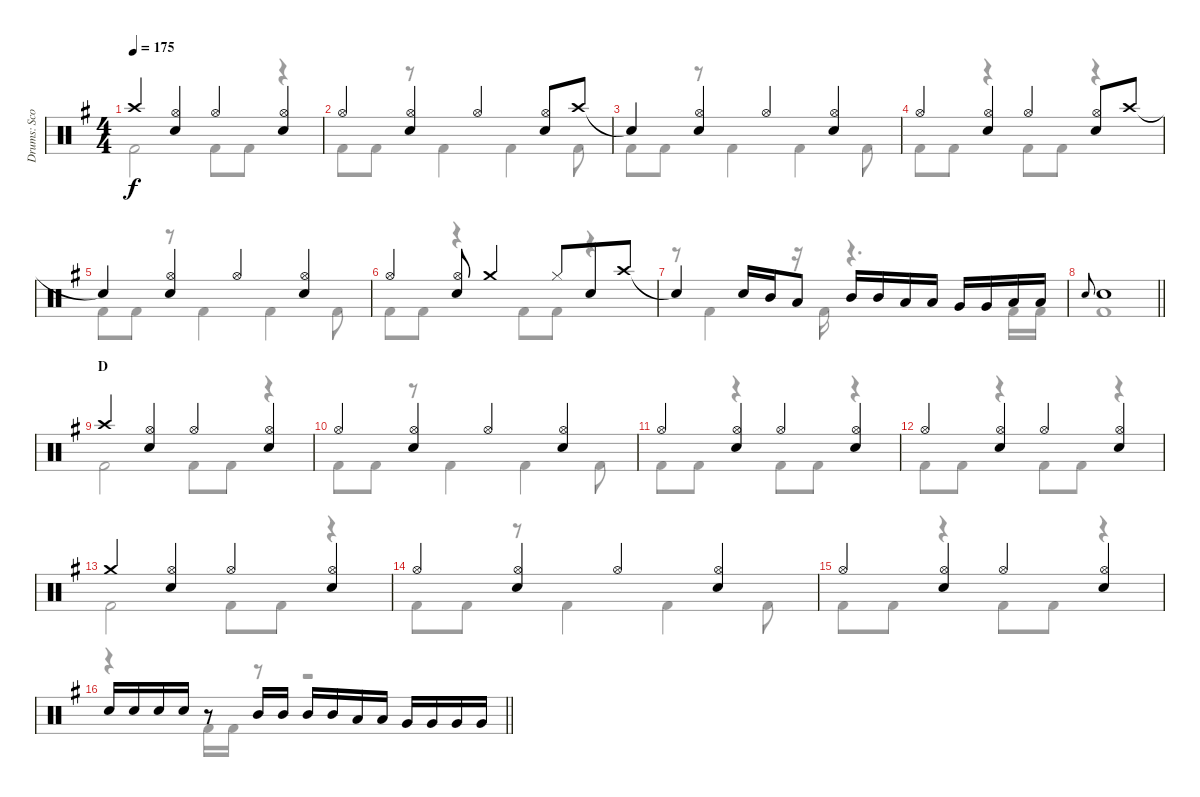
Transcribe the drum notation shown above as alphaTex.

\track ("Drums: Scott" "Drums: Sco") {instrument percussion}
\staff {score}
\articulation defaults
\voice
\ts (4 4)
\tempo 175
\clef neutral
\ks g "Crash high (hit)".4{dy f}
("Hi-Hat (open)" "Snare (hit) 2").4 "Hi-Hat (open)".4 ("Hi-Hat (open)" "Snare (hit) 2").4 |
"Hi-Hat (open)".4 ("Hi-Hat (open)" "Snare (hit) 2").4 "Hi-Hat (open)".4 ("Hi-Hat (open)" "Snare (hit) 2").8 "Crash high (hit)".8 |
"Snare (hit)"{t}.4 ("Hi-Hat (open)" "Snare (hit) 2").4 "Hi-Hat (open)".4 ("Hi-Hat (open)" "Snare (hit) 2").4 |
"Hi-Hat (open)".4 ("Hi-Hat (open)" "Snare (hit) 2").4 "Hi-Hat (open)".4 ("Hi-Hat (open)" "Snare (hit) 2").8 "Crash high (hit)".8 |
"Snare (hit)"{t}.4 ("Hi-Hat (open)" "Snare (hit) 2").4 "Hi-Hat (open)".4 ("Hi-Hat (open)" "Snare (hit) 2").4 |
"Hi-Hat (open)".4 ("Hi-Hat (open)" "Snare (hit) 2").8 "Crash medium (hit)".4 "Hi-Hat (closed)".8{beam merge} "Snare (hit) 2".8 "Crash high (hit)".8 |
"Snare (hit)"{t}.4 "Snare (hit) 2".16 "Mid Tom (hit)".16 "Low Tom (hit)".8 "Mid Tom (hit)".16 "Mid Tom (hit)".16 "Low Tom (hit)".16 "Low Tom (hit)".16 "Very Low Tom (hit)".16 "Very Low Tom (hit)".16 "Low Floor Tom (hit)".16 "Low Floor Tom (hit)".16 |
\barLineRight lightlight "Electric Snare (hit)".8{gr onbeat} "Snare (hit) 2".1
|
\section ("" "D")
"Crash high (hit)".4 ("Hi-Hat (open)" "Snare (hit) 2").4 "Hi-Hat (open)".4 ("Hi-Hat (open)" "Snare (hit) 2").4 |
"Hi-Hat (open)".4 ("Hi-Hat (open)" "Snare (hit) 2").4 "Hi-Hat (open)".4 ("Hi-Hat (open)" "Snare (hit) 2").4 |
"Hi-Hat (open)".4 ("Hi-Hat (open)" "Snare (hit) 2").4 "Hi-Hat (open)".4 ("Hi-Hat (open)" "Snare (hit) 2").4 |
"Hi-Hat (open)".4 ("Hi-Hat (open)" "Snare (hit) 2").4 "Hi-Hat (open)".4 ("Hi-Hat (open)" "Snare (hit) 2").4 |
"Crash medium (hit)".4 ("Hi-Hat (open)" "Snare (hit) 2").4 "Hi-Hat (open)".4 ("Hi-Hat (open)" "Snare (hit) 2").4 |
"Hi-Hat (open)".4 ("Hi-Hat (open)" "Snare (hit) 2").4 "Hi-Hat (open)".4 ("Hi-Hat (open)" "Snare (hit) 2").4 |
"Hi-Hat (open)".4 ("Hi-Hat (open)" "Snare (hit) 2").4 "Hi-Hat (open)".4 ("Hi-Hat (open)" "Snare (hit) 2").4 |
\barLineRight lightlight "Snare (hit) 2".16 "Snare (hit) 2".16 "Snare (hit) 2".16 "Snare (hit) 2".16
r.8 "Mid Tom (hit)".16{beam merge} "Mid Tom (hit)".16 "Mid Tom (hit)".16 "Mid Tom (hit)".16 "Low Tom (hit)".16 "Low Tom (hit)".16 "Very Low Tom (hit)".16 "Very Low Tom (hit)".16 "Very Low Tom (hit)".16 "Very Low Tom (hit)".16
\voice
\clef neutral
\ottava regular
\simile none
\ks g "Kick (hit) 2".2{dy f} "Kick (hit) 2".8 "Kick (hit) 2".8
r.4 |
"Kick (hit) 2".8 "Kick (hit) 2".8 r.8 "Kick (hit) 2".4 "Kick (hit) 2".4 "Kick (hit) 2".8 |
"Kick (hit) 2".8 "Kick (hit) 2".8 r.8 "Kick (hit) 2".4 "Kick (hit) 2".4 "Kick (hit) 2".8 |
"Kick (hit) 2".8 "Kick (hit) 2".8 r.4 "Kick (hit) 2".8 "Kick (hit) 2".8 r.4 |
"Kick (hit) 2".8 "Kick (hit) 2".8 r.8 "Kick (hit) 2".4 "Kick (hit) 2".4 "Kick (hit) 2".8 |
"Kick (hit) 2".8 "Kick (hit) 2".8 r.4 "Kick (hit) 2".8 "Kick (hit) 2".8 r.4 |
r.8 "Kick (hit) 2".4 r.16 "Kick (hit) 2".16 r.4{d} "Kick (hit) 2".16 "Kick (hit) 2".16 |
\barLineRight lightlight "Kick (hit) 2".1
|
"Kick (hit) 2".2 "Kick (hit) 2".8 "Kick (hit) 2".8 r.4 |
"Kick (hit) 2".8 "Kick (hit) 2".8 r.8 "Kick (hit) 2".4 "Kick (hit) 2".4 "Kick (hit) 2".8 |
"Kick (hit) 2".8 "Kick (hit) 2".8 r.4 "Kick (hit) 2".8 "Kick (hit) 2".8 r.4 |
"Kick (hit) 2".8 "Kick (hit) 2".8 r.4 "Kick (hit) 2".8 "Kick (hit) 2".8 r.4 |
"Kick (hit) 2".2 "Kick (hit) 2".8 "Kick (hit) 2".8 r.4 |
"Kick (hit) 2".8 "Kick (hit) 2".8 r.8 "Kick (hit) 2".4 "Kick (hit) 2".4 "Kick (hit) 2".8 |
"Kick (hit) 2".8 "Kick (hit) 2".8 r.4 "Kick (hit) 2".8 "Kick (hit) 2".8 r.4 |
\barLineRight lightlight
r.4 "Kick (hit) 2".16 "Kick (hit) 2".16 r.8 r.2
